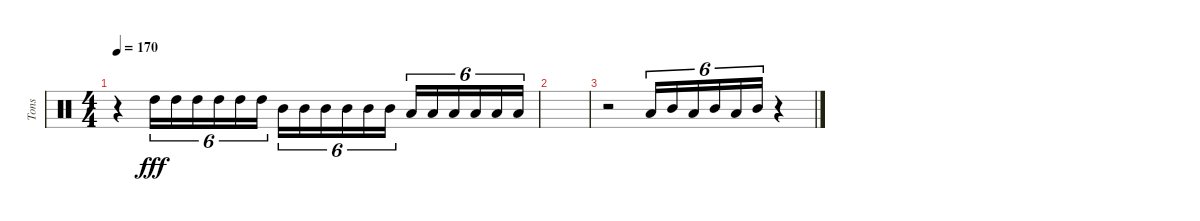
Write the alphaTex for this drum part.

\track ("Tons" "Tons") {instrument percussion}
\staff {score}
\articulation defaults
\ts (4 4)
\tempo 170
\clef neutral
\ks c
r.4{dy fff} "High Tom (hit)".16{tu (6 4)} "High Tom (hit)".16{tu (6 4)} "High Tom (hit)".16{tu (6 4)} "High Tom (hit)".16{tu (6 4)} "High Tom (hit)".16{tu (6 4)} "High Tom (hit)".16{tu (6 4)} "Mid Tom (hit)".16{tu (6 4)} "Mid Tom (hit)".16{tu (6 4)} "Mid Tom (hit)".16{tu (6 4)} "Mid Tom (hit)".16{tu (6 4)} "Mid Tom (hit)".16{tu (6 4)} "Mid Tom (hit)".16{tu (6 4)} "Low Tom (hit)".16{tu (6 4)} "Low Tom (hit)".16{tu (6 4)} "Low Tom (hit)".16{tu (6 4)} "Low Tom (hit)".16{tu (6 4)} "Low Tom (hit)".16{tu (6 4)} "Low Tom (hit)".16{tu (6 4)} |
|
r.2 "Low Tom (hit)".16{tu (6 4)} "Mid Tom (hit)".16{tu (6 4)} "Low Tom (hit)".16{tu (6 4)} "Mid Tom (hit)".16{tu (6 4)} "Low Tom (hit)".16{tu (6 4)} "Mid Tom (hit)".16{tu (6 4)} r.4
